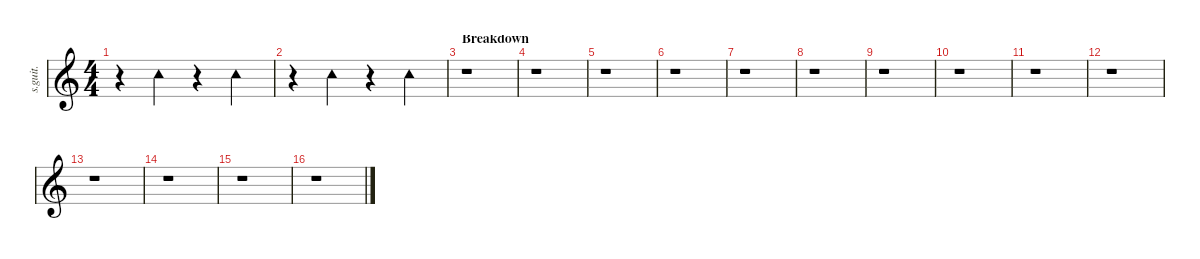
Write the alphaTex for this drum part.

\defaultSystemsLayout 4
\hideDynamics
\bracketExtendMode nobrackets
\track ("Studio" "s.guit.") {instrument percussion}
\staff {score}
\articulation defaults
\ts (4 4)
\tempo (149 hide)
\clef g2
\ks c
r.4{dy mp} "Tambourine (hit)".4{lyrics (0 "") lyrics (1 "") lyrics (2 "") lyrics (3 "") lyrics (4 "")} r.4 "Tambourine (hit)".4{lyrics (0 "") lyrics (1 "") lyrics (2 "") lyrics (3 "") lyrics (4 "")} |
r.4 "Tambourine (hit)".4{lyrics (0 "") lyrics (1 "") lyrics (2 "") lyrics (3 "") lyrics (4 "")} r.4 "Tambourine (hit)".4{lyrics (0 "") lyrics (1 "") lyrics (2 "") lyrics (3 "") lyrics (4 "")} |
\section ("" "Breakdown")
r.1 |
r.1 |
r.1 |
r.1 |
r.1 |
r.1 |
r.1 |
r.1 |
r.1 |
r.1 |
r.1 |
r.1 |
r.1 |
r.1
